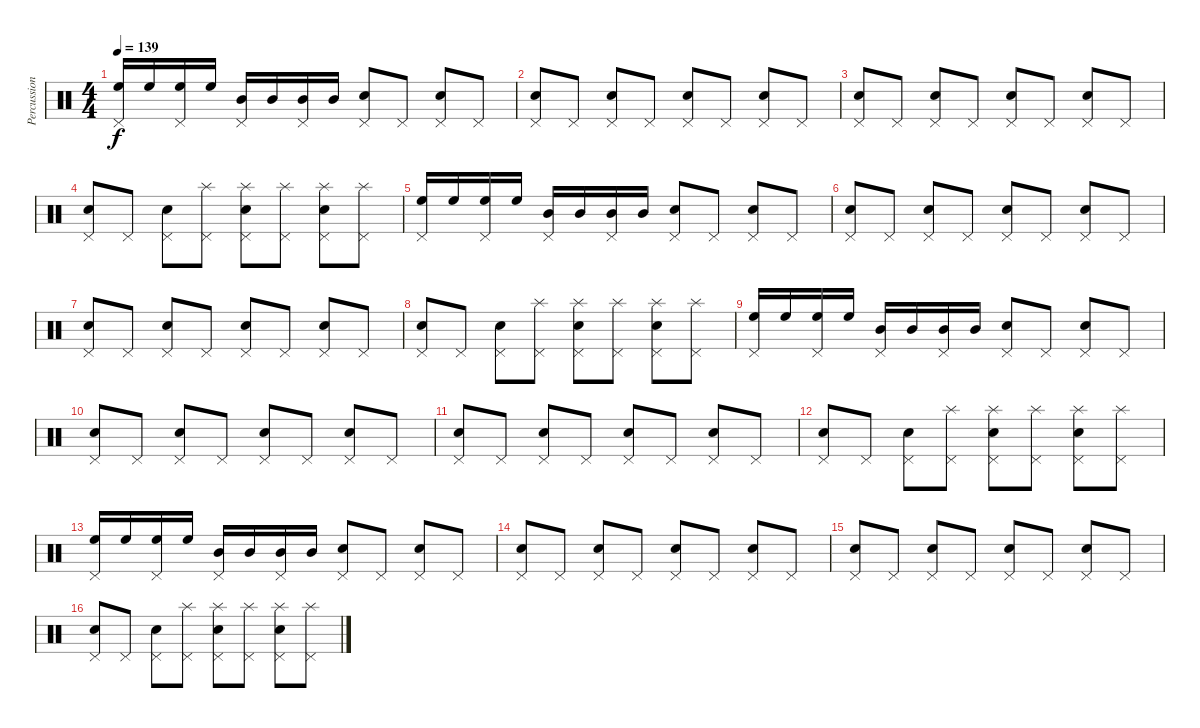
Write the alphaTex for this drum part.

\track ("Percussion" "Percussion") {instrument percussion}
\staff {score}
\articulation defaults
\ts (4 4)
\tempo 139
\clef neutral
\ks c
("High Floor Tom (hit)" "Pedal Hi-Hat (hit)").16{dy f} "High Floor Tom (hit)".16 ("High Floor Tom (hit)" "Pedal Hi-Hat (hit)").16 "High Floor Tom (hit)".16 ("Mid Tom (hit)" "Pedal Hi-Hat (hit)").16 "Mid Tom (hit)".16 ("Mid Tom (hit)" "Pedal Hi-Hat (hit)").16 "Mid Tom (hit)".16 ("Electric Snare (hit)" "Pedal Hi-Hat (hit)").8 "Pedal Hi-Hat (hit)".8 ("Electric Snare (hit)" "Pedal Hi-Hat (hit)").8 "Pedal Hi-Hat (hit)".8 |
("Electric Snare (hit)" "Pedal Hi-Hat (hit)").8 "Pedal Hi-Hat (hit)".8 ("Electric Snare (hit)" "Pedal Hi-Hat (hit)").8 "Pedal Hi-Hat (hit)".8 ("Electric Snare (hit)" "Pedal Hi-Hat (hit)").8 "Pedal Hi-Hat (hit)".8 ("Electric Snare (hit)" "Pedal Hi-Hat (hit)").8 "Pedal Hi-Hat (hit)".8 |
("Electric Snare (hit)" "Pedal Hi-Hat (hit)").8 "Pedal Hi-Hat (hit)".8 ("Electric Snare (hit)" "Pedal Hi-Hat (hit)").8 "Pedal Hi-Hat (hit)".8 ("Electric Snare (hit)" "Pedal Hi-Hat (hit)").8 "Pedal Hi-Hat (hit)".8 ("Electric Snare (hit)" "Pedal Hi-Hat (hit)").8 "Pedal Hi-Hat (hit)".8 |
("Electric Snare (hit)" "Pedal Hi-Hat (hit)").8 "Pedal Hi-Hat (hit)".8 ("Electric Snare (hit)" "Pedal Hi-Hat (hit)").8 ("Splash (hit)" "Pedal Hi-Hat (hit)").8 ("Splash (hit)" "Electric Snare (hit)" "Pedal Hi-Hat (hit)").8 ("Splash (hit)" "Pedal Hi-Hat (hit)").8 ("Splash (hit)" "Electric Snare (hit)" "Pedal Hi-Hat (hit)").8 ("Splash (hit)" "Pedal Hi-Hat (hit)").8 |
("High Floor Tom (hit)" "Pedal Hi-Hat (hit)").16 "High Floor Tom (hit)".16 ("High Floor Tom (hit)" "Pedal Hi-Hat (hit)").16 "High Floor Tom (hit)".16 ("Mid Tom (hit)" "Pedal Hi-Hat (hit)").16 "Mid Tom (hit)".16 ("Mid Tom (hit)" "Pedal Hi-Hat (hit)").16 "Mid Tom (hit)".16 ("Electric Snare (hit)" "Pedal Hi-Hat (hit)").8 "Pedal Hi-Hat (hit)".8 ("Electric Snare (hit)" "Pedal Hi-Hat (hit)").8 "Pedal Hi-Hat (hit)".8 |
("Electric Snare (hit)" "Pedal Hi-Hat (hit)").8 "Pedal Hi-Hat (hit)".8 ("Electric Snare (hit)" "Pedal Hi-Hat (hit)").8 "Pedal Hi-Hat (hit)".8 ("Electric Snare (hit)" "Pedal Hi-Hat (hit)").8 "Pedal Hi-Hat (hit)".8 ("Electric Snare (hit)" "Pedal Hi-Hat (hit)").8 "Pedal Hi-Hat (hit)".8 |
("Electric Snare (hit)" "Pedal Hi-Hat (hit)").8 "Pedal Hi-Hat (hit)".8 ("Electric Snare (hit)" "Pedal Hi-Hat (hit)").8 "Pedal Hi-Hat (hit)".8 ("Electric Snare (hit)" "Pedal Hi-Hat (hit)").8 "Pedal Hi-Hat (hit)".8 ("Electric Snare (hit)" "Pedal Hi-Hat (hit)").8 "Pedal Hi-Hat (hit)".8 |
("Electric Snare (hit)" "Pedal Hi-Hat (hit)").8 "Pedal Hi-Hat (hit)".8 ("Electric Snare (hit)" "Pedal Hi-Hat (hit)").8 ("Splash (hit)" "Pedal Hi-Hat (hit)").8 ("Splash (hit)" "Electric Snare (hit)" "Pedal Hi-Hat (hit)").8 ("Splash (hit)" "Pedal Hi-Hat (hit)").8 ("Splash (hit)" "Electric Snare (hit)" "Pedal Hi-Hat (hit)").8 ("Splash (hit)" "Pedal Hi-Hat (hit)").8 |
("High Floor Tom (hit)" "Pedal Hi-Hat (hit)").16 "High Floor Tom (hit)".16 ("High Floor Tom (hit)" "Pedal Hi-Hat (hit)").16 "High Floor Tom (hit)".16 ("Mid Tom (hit)" "Pedal Hi-Hat (hit)").16 "Mid Tom (hit)".16 ("Mid Tom (hit)" "Pedal Hi-Hat (hit)").16 "Mid Tom (hit)".16 ("Electric Snare (hit)" "Pedal Hi-Hat (hit)").8 "Pedal Hi-Hat (hit)".8 ("Electric Snare (hit)" "Pedal Hi-Hat (hit)").8 "Pedal Hi-Hat (hit)".8 |
("Electric Snare (hit)" "Pedal Hi-Hat (hit)").8 "Pedal Hi-Hat (hit)".8 ("Electric Snare (hit)" "Pedal Hi-Hat (hit)").8 "Pedal Hi-Hat (hit)".8 ("Electric Snare (hit)" "Pedal Hi-Hat (hit)").8 "Pedal Hi-Hat (hit)".8 ("Electric Snare (hit)" "Pedal Hi-Hat (hit)").8 "Pedal Hi-Hat (hit)".8 |
("Electric Snare (hit)" "Pedal Hi-Hat (hit)").8 "Pedal Hi-Hat (hit)".8 ("Electric Snare (hit)" "Pedal Hi-Hat (hit)").8 "Pedal Hi-Hat (hit)".8 ("Electric Snare (hit)" "Pedal Hi-Hat (hit)").8 "Pedal Hi-Hat (hit)".8 ("Electric Snare (hit)" "Pedal Hi-Hat (hit)").8 "Pedal Hi-Hat (hit)".8 |
("Electric Snare (hit)" "Pedal Hi-Hat (hit)").8 "Pedal Hi-Hat (hit)".8 ("Electric Snare (hit)" "Pedal Hi-Hat (hit)").8 ("Splash (hit)" "Pedal Hi-Hat (hit)").8 ("Splash (hit)" "Electric Snare (hit)" "Pedal Hi-Hat (hit)").8 ("Splash (hit)" "Pedal Hi-Hat (hit)").8 ("Splash (hit)" "Electric Snare (hit)" "Pedal Hi-Hat (hit)").8 ("Splash (hit)" "Pedal Hi-Hat (hit)").8 |
("High Floor Tom (hit)" "Pedal Hi-Hat (hit)").16 "High Floor Tom (hit)".16 ("High Floor Tom (hit)" "Pedal Hi-Hat (hit)").16 "High Floor Tom (hit)".16 ("Mid Tom (hit)" "Pedal Hi-Hat (hit)").16 "Mid Tom (hit)".16 ("Mid Tom (hit)" "Pedal Hi-Hat (hit)").16 "Mid Tom (hit)".16 ("Electric Snare (hit)" "Pedal Hi-Hat (hit)").8 "Pedal Hi-Hat (hit)".8 ("Electric Snare (hit)" "Pedal Hi-Hat (hit)").8 "Pedal Hi-Hat (hit)".8 |
("Electric Snare (hit)" "Pedal Hi-Hat (hit)").8 "Pedal Hi-Hat (hit)".8 ("Electric Snare (hit)" "Pedal Hi-Hat (hit)").8 "Pedal Hi-Hat (hit)".8 ("Electric Snare (hit)" "Pedal Hi-Hat (hit)").8 "Pedal Hi-Hat (hit)".8 ("Electric Snare (hit)" "Pedal Hi-Hat (hit)").8 "Pedal Hi-Hat (hit)".8 |
("Electric Snare (hit)" "Pedal Hi-Hat (hit)").8 "Pedal Hi-Hat (hit)".8 ("Electric Snare (hit)" "Pedal Hi-Hat (hit)").8 "Pedal Hi-Hat (hit)".8 ("Electric Snare (hit)" "Pedal Hi-Hat (hit)").8 "Pedal Hi-Hat (hit)".8 ("Electric Snare (hit)" "Pedal Hi-Hat (hit)").8 "Pedal Hi-Hat (hit)".8 |
("Electric Snare (hit)" "Pedal Hi-Hat (hit)").8 "Pedal Hi-Hat (hit)".8 ("Electric Snare (hit)" "Pedal Hi-Hat (hit)").8 ("Splash (hit)" "Pedal Hi-Hat (hit)").8 ("Splash (hit)" "Electric Snare (hit)" "Pedal Hi-Hat (hit)").8 ("Splash (hit)" "Pedal Hi-Hat (hit)").8 ("Splash (hit)" "Electric Snare (hit)" "Pedal Hi-Hat (hit)").8 ("Splash (hit)" "Pedal Hi-Hat (hit)").8
